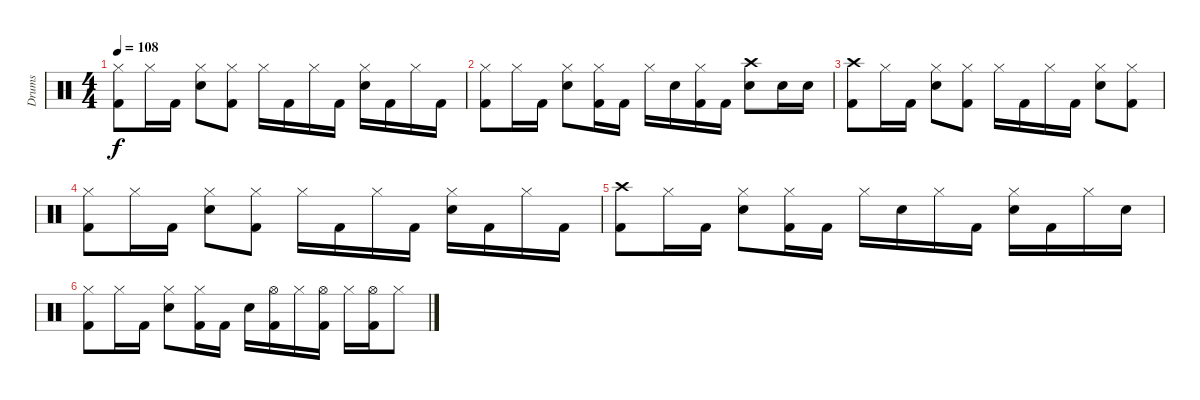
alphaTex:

\track ("Drums" "Drums") {instrument percussion}
\staff {score}
\articulation defaults
\ts (4 4)
\tempo 108
\clef neutral
\ks c
("Hi-Hat (closed)" "Kick (hit) 2").8{dy f} "Hi-Hat (closed)".16 "Kick (hit) 2".16 ("Hi-Hat (closed)" "Electric Snare (hit)").8 ("Hi-Hat (closed)" "Kick (hit) 2").8 "Hi-Hat (closed)".16 "Kick (hit) 2".16 "Hi-Hat (closed)".16 "Kick (hit) 2".16 ("Hi-Hat (closed)" "Electric Snare (hit)").16 "Kick (hit) 2".16 "Hi-Hat (closed)".16 "Kick (hit) 2".16 |
("Hi-Hat (closed)" "Kick (hit) 2").8 "Hi-Hat (closed)".16 "Kick (hit) 2".16 ("Hi-Hat (closed)" "Electric Snare (hit)").8 ("Hi-Hat (closed)" "Kick (hit) 2").16 "Kick (hit) 2".16 "Hi-Hat (closed)".16 "Electric Snare (hit)".16 ("Hi-Hat (closed)" "Kick (hit) 2").16 "Kick (hit) 2".16 ("Crash high (hit)" "Electric Snare (hit)").8 "Electric Snare (hit)".16 "Electric Snare (hit)".16 |
("Crash high (hit)" "Kick (hit) 2").8 "Hi-Hat (closed)".16 "Kick (hit) 2".16 ("Hi-Hat (closed)" "Electric Snare (hit)").8 ("Hi-Hat (closed)" "Kick (hit) 2").8 "Hi-Hat (closed)".16 "Kick (hit) 2".16 "Hi-Hat (closed)".16 "Kick (hit) 2".16 ("Hi-Hat (closed)" "Electric Snare (hit)").8 ("Hi-Hat (closed)" "Kick (hit) 2").8 |
("Hi-Hat (closed)" "Kick (hit) 2").8 "Hi-Hat (closed)".16 "Kick (hit) 2".16 ("Hi-Hat (closed)" "Electric Snare (hit)").8 ("Hi-Hat (closed)" "Kick (hit) 2").8 "Hi-Hat (closed)".16 "Kick (hit) 2".16 "Hi-Hat (closed)".16 "Kick (hit) 2".16 ("Hi-Hat (closed)" "Electric Snare (hit)").16 "Kick (hit) 2".16 "Hi-Hat (closed)".16 "Kick (hit) 2".16 |
("Crash high (hit)" "Kick (hit) 2").8 "Hi-Hat (closed)".16 "Kick (hit) 2".16 ("Hi-Hat (closed)" "Electric Snare (hit)").8 ("Hi-Hat (closed)" "Kick (hit) 2").16 "Kick (hit) 2".16 "Hi-Hat (closed)".16 "Electric Snare (hit)".16 "Hi-Hat (closed)".16 "Kick (hit) 2".16 ("Hi-Hat (closed)" "Electric Snare (hit)").16 "Kick (hit) 2".16 "Hi-Hat (closed)".16 "Electric Snare (hit)".16 |
("Hi-Hat (closed)" "Kick (hit) 2").8 "Hi-Hat (closed)".16 "Kick (hit) 2".16 ("Hi-Hat (closed)" "Electric Snare (hit)").8 ("Hi-Hat (closed)" "Kick (hit) 2").16 "Kick (hit) 2".16 "Electric Snare (hit)".16 ("Hi-Hat (open)" "Kick (hit) 2").16 "Hi-Hat (closed)".16 ("Hi-Hat (open)" "Kick (hit) 2").16 "Hi-Hat (closed)".16 ("Hi-Hat (open)" "Kick (hit) 2").16 "Hi-Hat (closed)".8
